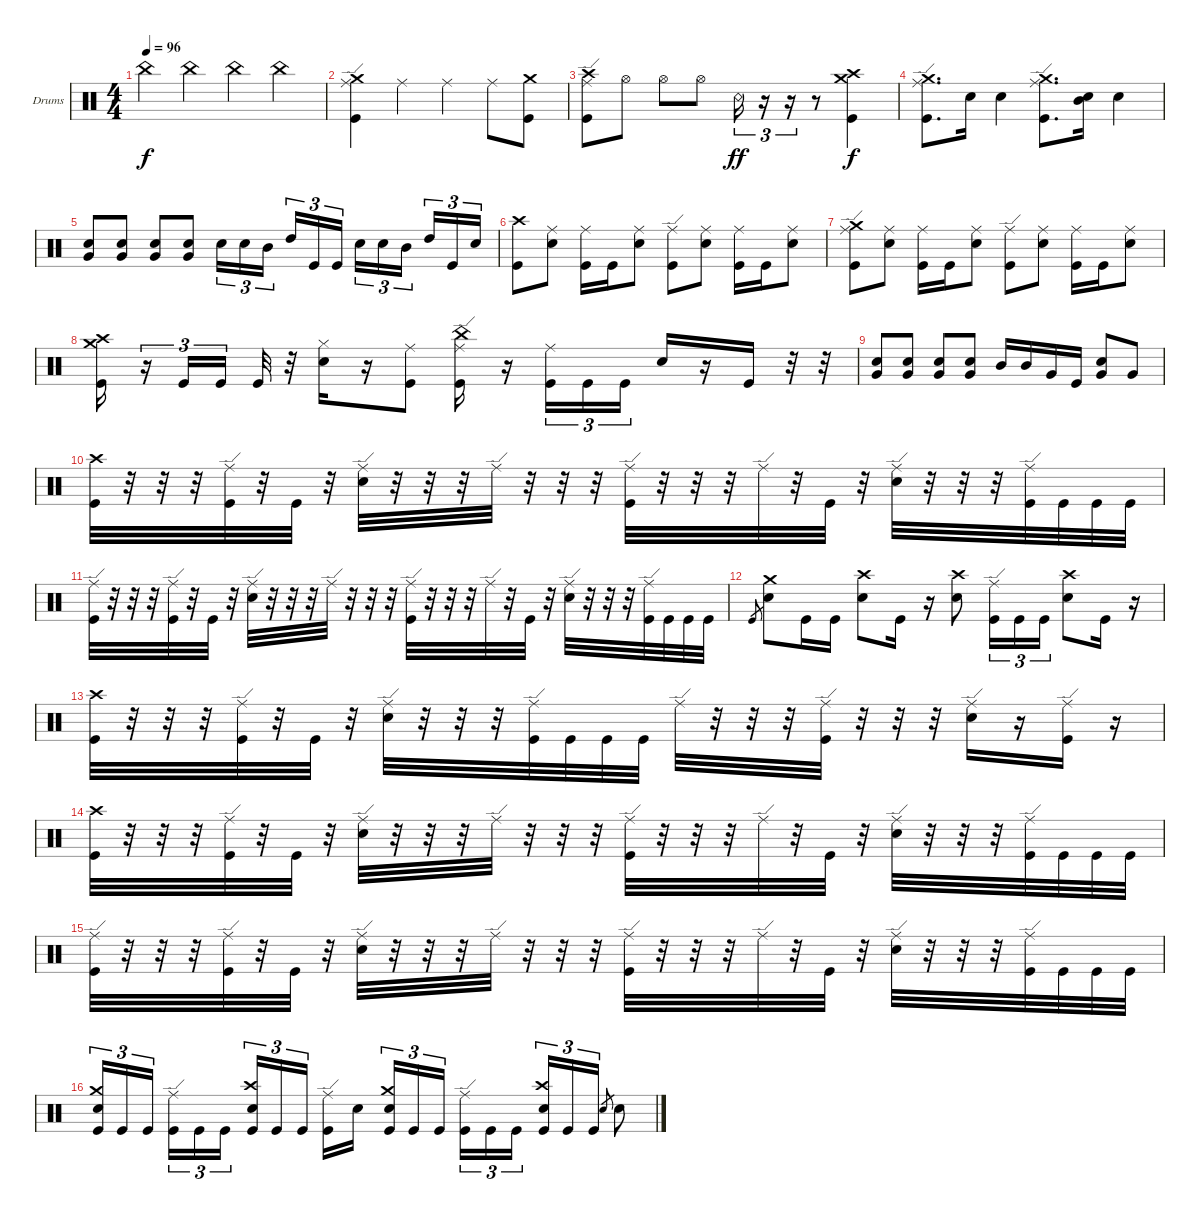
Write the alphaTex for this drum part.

\bracketExtendMode groupsimilarinstruments
\firstSystemTrackNameOrientation horizontal
\otherSystemsTrackNameOrientation horizontal
\track ("Drumkit" "Drums") {instrument percussion}
\staff {score}
\articulation defaults
\ts (4 4)
\tempo 96
\clef neutral
\ks c "China (hit)".4{dy f} "China (hit)".4 "China (hit)".4 "China (hit)".4
|
("Kick (hit)" "Crash medium (hit)" "Ride (edge)").4 "Ride (middle)".4 "Ride (middle)".4 "Ride (middle)".8 ("Kick (hit)" "Crash medium (hit)").8 |
("Kick (hit)" "Crash high (hit)" "Ride (edge)").8 "Hi-Hat (open)".8 "Hi-Hat (open)".8 "Hi-Hat (open)".8 "Snare (rim shot)".16{tu (3 2) dy ff} r.16{tu (3 2)} r.16{tu (3 2)} r.8 ("Kick (hit)" "Crash high (hit)" "Crash medium (hit)").4{dy f} |
("Kick (hit)" "Ride (edge)" "Crash medium (hit)").8{d} "Snare (hit) 2".16 "Snare (hit) 2".4 ("Kick (hit)" "Ride (edge)" "Crash medium (hit)").8{d} ("Snare (hit) 2" "Mid Tom (hit)").16 "Snare (hit) 2".4 |
("Very Low Tom (hit)" "Snare (hit) 2").8 ("Very Low Tom (hit)" "Snare (hit) 2").8 ("Very Low Tom (hit)" "Snare (hit) 2").8 ("Very Low Tom (hit)" "Snare (hit) 2").8 "Snare (hit) 2".16{tu (3 2)} "Snare (hit) 2".16{tu (3 2)} "Mid Tom (hit)".16{tu (3 2)} "High Tom (hit)".16{tu (3 2)} "Kick (hit)".16{tu (3 2)} "Kick (hit)".16{tu (3 2)} "Snare (hit) 2".16{tu (3 2)} "Snare (hit) 2".16{tu (3 2)} "Mid Tom (hit)".16{tu (3 2)} "High Tom (hit)".16{tu (3 2)} "Kick (hit)".16{tu (3 2)} "Snare (hit) 2".16{tu (3 2)} |
("Kick (hit)" "Crash high (hit)").8 ("Snare (hit) 2" "Ride (middle)").8 ("Ride (middle)" "Kick (hit)").16 "Kick (hit)".16 ("Snare (hit) 2" "Ride (middle)").8 ("Kick (hit)" "Ride (edge)").8 ("Snare (hit) 2" "Ride (middle)").8 ("Ride (middle)" "Kick (hit)").16 "Kick (hit)".16 ("Snare (hit) 2" "Ride (middle)").8 |
("Kick (hit)" "Ride (edge)" "Crash medium (hit)").8 ("Snare (hit) 2" "Ride (middle)").8 ("Ride (middle)" "Kick (hit)").16 "Kick (hit)".16 ("Snare (hit) 2" "Ride (middle)").8 ("Kick (hit)" "Ride (edge)").8 ("Snare (hit) 2" "Ride (middle)").8 ("Ride (middle)" "Kick (hit)").16 "Kick (hit)".16 ("Snare (hit) 2" "Ride (middle)").8 |
("Kick (hit)" "Crash medium (hit)" "Crash high (hit)").16 r.16{tu (3 2)} "Kick (hit)".16{tu (3 2)} "Kick (hit)".16{tu (3 2)} "Kick (hit)".32 r.32 ("Snare (hit) 2" "Hi-Hat (closed)").16 r.16 ("Kick (hit)" "Ride (middle)").8 ("Kick (hit)" "China (hit)" "Ride (edge)").16 r.16 ("Ride (middle)" "Kick (hit)").16{tu (3 2)} "Kick (hit)".16{tu (3 2)} "Kick (hit)".16{tu (3 2)} "Snare (hit) 2".16 r.16 "Kick (hit)".16 r.32 r.32 |
("Very Low Tom (hit)" "Snare (hit) 2").8 ("Very Low Tom (hit)" "Snare (hit) 2").8 ("Very Low Tom (hit)" "Snare (hit) 2").8 ("Very Low Tom (hit)" "Snare (hit) 2").8 "Mid Tom (hit)".16 "Mid Tom (hit)".16 "Very Low Tom (hit)".16 "Kick (hit)".16 ("Snare (hit) 2" "Very Low Tom (hit)").8 "Very Low Tom (hit)".8 |
("Crash high (hit)" "Kick (hit)").32 r.32 r.32 r.32 ("Ride (edge)" "Kick (hit)").32 r.32 "Kick (hit)".32 r.32 ("Ride (edge)" "Snare (hit) 2").32 r.32 r.32 r.32 "Ride (edge)".32 r.32 r.32 r.32 ("Ride (edge)" "Kick (hit)").32 r.32 r.32 r.32 "Ride (edge)".32 r.32 "Kick (hit)".32 r.32 ("Ride (edge)" "Snare (hit) 2").32 r.32 r.32 r.32 ("Ride (edge)" "Kick (hit)").32 "Kick (hit)".32 "Kick (hit)".32 "Kick (hit)".32 |
("Ride (edge)" "Kick (hit)").32 r.32 r.32 r.32 ("Ride (edge)" "Kick (hit)").32 r.32 "Kick (hit)".32 r.32 ("Ride (edge)" "Snare (hit) 2").32 r.32 r.32 r.32 "Ride (edge)".32 r.32 r.32 r.32 ("Ride (edge)" "Kick (hit)").32 r.32 r.32 r.32 "Ride (edge)".32 r.32 "Kick (hit)".32 r.32 ("Ride (edge)" "Snare (hit) 2").32 r.32 r.32 r.32 ("Ride (edge)" "Kick (hit)").32 "Kick (hit)".32 "Kick (hit)".32 "Kick (hit)".32 |
"Kick (hit)".8{gr} ("Snare (hit) 2" "Crash medium (hit)").8 "Kick (hit)".16 "Kick (hit)".16 ("Snare (hit) 2" "Crash high (hit)").8 "Kick (hit)".16 r.16 ("Snare (hit) 2" "Crash high (hit)").8 ("Kick (hit)" "Ride (edge)").16{tu (3 2)} "Kick (hit)".16{tu (3 2)} "Kick (hit)".16{tu (3 2)} ("Snare (hit) 2" "Crash high (hit)").8 "Kick (hit)".16 r.16 |
("Crash high (hit)" "Kick (hit)").32 r.32 r.32 r.32 ("Ride (edge)" "Kick (hit)").32 r.32 "Kick (hit)".32 r.32 ("Ride (edge)" "Snare (hit) 2").32 r.32 r.32 r.32 ("Ride (edge)" "Kick (hit)").32 "Kick (hit)".32 "Kick (hit)".32 "Kick (hit)".32 "Ride (edge)".32 r.32 r.32 r.32 ("Kick (hit)" "Ride (edge)").32 r.32 r.32 r.32 ("Snare (hit) 2" "Ride (edge)").16 r.16 ("Kick (hit)" "Ride (edge)").16 r.16 |
("Crash high (hit)" "Kick (hit)").32 r.32 r.32 r.32 ("Ride (edge)" "Kick (hit)").32 r.32 "Kick (hit)".32 r.32 ("Ride (edge)" "Snare (hit) 2").32 r.32 r.32 r.32 "Ride (edge)".32 r.32 r.32 r.32 ("Ride (edge)" "Kick (hit)").32 r.32 r.32 r.32 "Ride (edge)".32 r.32 "Kick (hit)".32 r.32 ("Ride (edge)" "Snare (hit) 2").32 r.32 r.32 r.32 ("Ride (edge)" "Kick (hit)").32 "Kick (hit)".32 "Kick (hit)".32 "Kick (hit)".32 |
("Ride (edge)" "Kick (hit)").32 r.32 r.32 r.32 ("Ride (edge)" "Kick (hit)").32 r.32 "Kick (hit)".32 r.32 ("Ride (edge)" "Snare (hit) 2").32 r.32 r.32 r.32 "Ride (edge)".32 r.32 r.32 r.32 ("Ride (edge)" "Kick (hit)").32 r.32 r.32 r.32 "Ride (edge)".32 r.32 "Kick (hit)".32 r.32 ("Ride (edge)" "Snare (hit) 2").32 r.32 r.32 r.32 ("Ride (edge)" "Kick (hit)").32 "Kick (hit)".32 "Kick (hit)".32 "Kick (hit)".32 |
("Snare (hit) 2" "Kick (hit)" "Crash medium (hit)").16{tu (3 2)} "Kick (hit)".16{tu (3 2)} "Kick (hit)".16{tu (3 2)} ("Kick (hit)" "Ride (edge)").16{tu (3 2)} "Kick (hit)".16{tu (3 2)} "Kick (hit)".16{tu (3 2)} ("Kick (hit)" "Crash high (hit)" "Snare (hit) 2").16{tu (3 2)} "Kick (hit)".16{tu (3 2)} "Kick (hit)".16{tu (3 2)} ("Ride (edge)" "Kick (hit)").16 "Snare (hit) 2".16 ("Snare (hit) 2" "Kick (hit)" "Crash medium (hit)").16{tu (3 2)} "Kick (hit)".16{tu (3 2)} "Kick (hit)".16{tu (3 2)} ("Kick (hit)" "Ride (edge)").16{tu (3 2)} "Kick (hit)".16{tu (3 2)} "Kick (hit)".16{tu (3 2)} ("Kick (hit)" "Crash high (hit)" "Snare (hit) 2").16{tu (3 2)} "Kick (hit)".16{tu (3 2)} "Kick (hit)".16{tu (3 2)} "Snare (hit) 2".8{gr} "Snare (hit) 2".8
